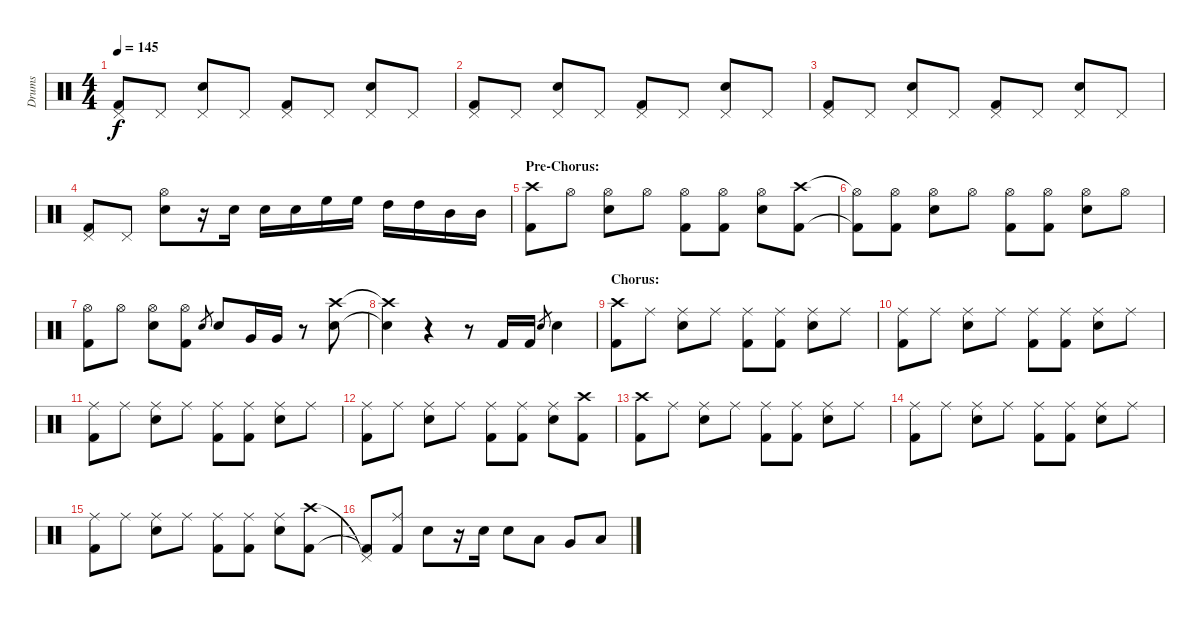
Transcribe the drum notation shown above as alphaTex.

\track ("Drums" "Drums") {instrument percussion}
\staff {score}
\articulation defaults
\ts (4 4)
\tempo 145
\clef neutral
\ks c
("Pedal Hi-Hat (hit)" "Kick (hit) 2").8{dy f} "Pedal Hi-Hat (hit)".8 ("Pedal Hi-Hat (hit)" "Electric Snare (hit)").8 "Pedal Hi-Hat (hit)".8 ("Pedal Hi-Hat (hit)" "Kick (hit) 2").8 "Pedal Hi-Hat (hit)".8 ("Pedal Hi-Hat (hit)" "Electric Snare (hit)").8 "Pedal Hi-Hat (hit)".8 |
("Pedal Hi-Hat (hit)" "Kick (hit) 2").8 "Pedal Hi-Hat (hit)".8 ("Pedal Hi-Hat (hit)" "Electric Snare (hit)").8 "Pedal Hi-Hat (hit)".8 ("Pedal Hi-Hat (hit)" "Kick (hit) 2").8 "Pedal Hi-Hat (hit)".8 ("Pedal Hi-Hat (hit)" "Electric Snare (hit)").8 "Pedal Hi-Hat (hit)".8 |
("Pedal Hi-Hat (hit)" "Kick (hit) 2").8 "Pedal Hi-Hat (hit)".8 ("Pedal Hi-Hat (hit)" "Electric Snare (hit)").8 "Pedal Hi-Hat (hit)".8 ("Pedal Hi-Hat (hit)" "Kick (hit) 2").8 "Pedal Hi-Hat (hit)".8 ("Pedal Hi-Hat (hit)" "Electric Snare (hit)").8 "Pedal Hi-Hat (hit)".8 |
("Pedal Hi-Hat (hit)" "Kick (hit) 2").8 "Pedal Hi-Hat (hit)".8 ("Hi-Hat (open)" "Electric Snare (hit)").8 r.16 "Electric Snare (hit)".16 "Electric Snare (hit)".16 "Electric Snare (hit)".16 "High Floor Tom (hit)".16 "High Floor Tom (hit)".16 "High Tom (hit)".16 "High Tom (hit)".16 "Mid Tom (hit)".16 "Mid Tom (hit)".16 |
\section ("" "Pre-Chorus:")
("Crash high (hit)" "Kick (hit) 2").8 "Hi-Hat (open)".8 ("Hi-Hat (open)" "Electric Snare (hit)").8 "Hi-Hat (open)".8 ("Hi-Hat (open)" "Kick (hit) 2").8 ("Hi-Hat (open)" "Kick (hit) 2").8 ("Hi-Hat (open)" "Electric Snare (hit)").8 ("Crash high (hit)" "Kick (hit) 2").8 |
("Hi-Hat (open)"{t} "Kick (hit) 2"{t}).8 ("Hi-Hat (open)" "Kick (hit) 2").8 ("Hi-Hat (open)" "Electric Snare (hit)").8 "Hi-Hat (open)".8 ("Hi-Hat (open)" "Kick (hit) 2").8 ("Hi-Hat (open)" "Kick (hit) 2").8 ("Hi-Hat (open)" "Electric Snare (hit)").8 "Hi-Hat (open)".8 |
("Hi-Hat (open)" "Kick (hit) 2").8 "Hi-Hat (open)".8 ("Hi-Hat (open)" "Electric Snare (hit)").8 ("Hi-Hat (open)" "Kick (hit) 2").8 "Electric Snare (hit)".8{gr} "Electric Snare (hit)".8 "Very Low Tom (hit)".16 "Very Low Tom (hit)".16 r.8 ("Crash high (hit)" "Electric Snare (hit)").8 |
("Crash high (hit)"{t} "Snare (hit)"{t}).4 r.4 r.8 "Kick (hit) 2".16 "Kick (hit) 2".16 "Electric Snare (hit)".8{gr} "Electric Snare (hit)".4 |
\section ("" "Chorus:")
("Crash high (hit)" "Kick (hit) 2").8 "Ride (middle)".8 ("Ride (middle)" "Electric Snare (hit)").8 "Ride (middle)".8 ("Ride (middle)" "Kick (hit) 2").8 ("Ride (middle)" "Kick (hit) 2").8 ("Ride (middle)" "Electric Snare (hit)").8 "Ride (middle)".8 |
("Ride (middle)" "Kick (hit) 2").8 "Ride (middle)".8 ("Ride (middle)" "Electric Snare (hit)").8 "Ride (middle)".8 ("Ride (middle)" "Kick (hit) 2").8 ("Ride (middle)" "Kick (hit) 2").8 ("Ride (middle)" "Electric Snare (hit)").8 "Ride (middle)".8 |
("Ride (middle)" "Kick (hit) 2").8 "Ride (middle)".8 ("Ride (middle)" "Electric Snare (hit)").8 "Ride (middle)".8 ("Ride (middle)" "Kick (hit) 2").8 ("Ride (middle)" "Kick (hit) 2").8 ("Ride (middle)" "Electric Snare (hit)").8 "Ride (middle)".8 |
("Ride (middle)" "Kick (hit) 2").8 "Ride (middle)".8 ("Ride (middle)" "Electric Snare (hit)").8 "Ride (middle)".8 ("Ride (middle)" "Kick (hit) 2").8 ("Ride (middle)" "Kick (hit) 2").8 ("Ride (middle)" "Electric Snare (hit)").8 ("Crash high (hit)" "Kick (hit) 2").8 |
("Crash high (hit)" "Kick (hit) 2").8 "Ride (middle)".8 ("Ride (middle)" "Electric Snare (hit)").8 "Ride (middle)".8 ("Ride (middle)" "Kick (hit) 2").8 ("Ride (middle)" "Kick (hit) 2").8 ("Ride (middle)" "Electric Snare (hit)").8 "Ride (middle)".8 |
("Ride (middle)" "Kick (hit) 2").8 "Ride (middle)".8 ("Ride (middle)" "Electric Snare (hit)").8 "Ride (middle)".8 ("Ride (middle)" "Kick (hit) 2").8 ("Ride (middle)" "Kick (hit) 2").8 ("Ride (middle)" "Electric Snare (hit)").8 "Ride (middle)".8 |
("Ride (middle)" "Kick (hit) 2").8 "Ride (middle)".8 ("Ride (middle)" "Electric Snare (hit)").8 "Ride (middle)".8 ("Ride (middle)" "Kick (hit) 2").8 ("Ride (middle)" "Kick (hit) 2").8 ("Ride (middle)" "Electric Snare (hit)").8 ("Crash high (hit)" "Kick (hit) 2").8 |
("Pedal Hi-Hat (hit)"{t} "Kick (hit) 2"{t}).8 ("Ride (middle)" "Kick (hit) 2").8 "Electric Snare (hit)".8 r.16 "Electric Snare (hit)".16 "Electric Snare (hit)".8 "Low Tom (hit)".8 "Very Low Tom (hit)".8 "Low Floor Tom (hit)".8
